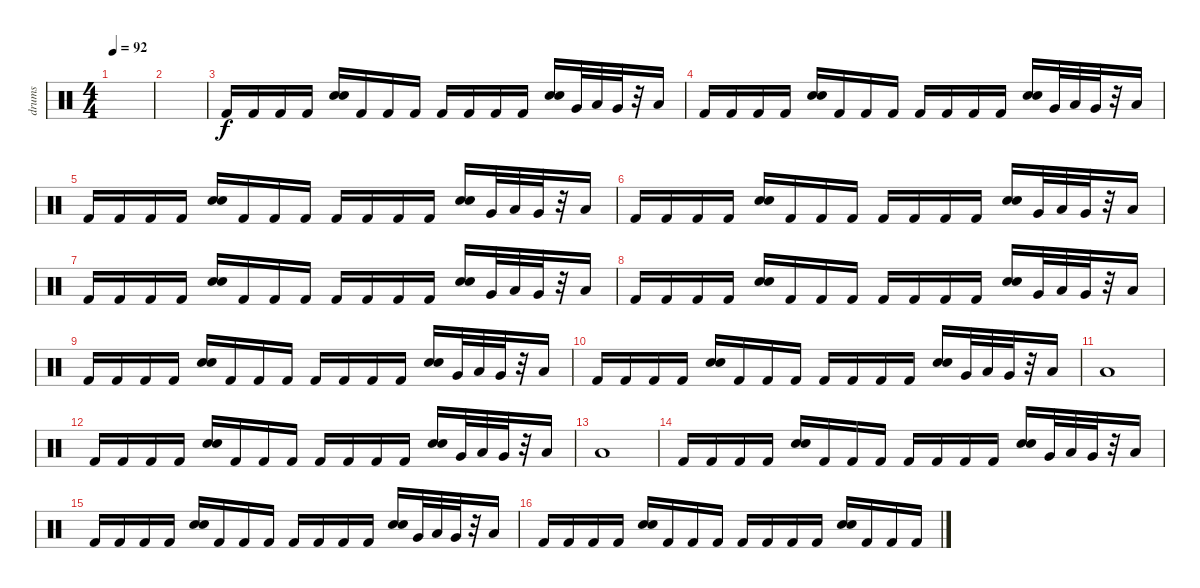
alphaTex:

\track ("drums" "drums") {instrument percussion}
\staff {score}
\articulation defaults
\ts (4 4)
\tempo 92
\clef neutral
\ks c
|
|
"Kick (hit) 2".16 "Kick (hit) 2".16 "Kick (hit) 2".16 "Kick (hit) 2".16 ("Snare (hit) 2" "Snare (hit) 2").16 "Kick (hit) 2".16 "Kick (hit) 2".16 "Kick (hit) 2".16 "Kick (hit) 2".16 "Kick (hit) 2".16 "Kick (hit) 2".16 "Kick (hit) 2".16 ("Snare (hit) 2" "Snare (hit) 2").16 "Very Low Tom (hit)".32 "Low Floor Tom (hit)".32 "Very Low Tom (hit)".32 r.32 "Low Floor Tom (hit)".16 |
"Kick (hit) 2".16 "Kick (hit) 2".16 "Kick (hit) 2".16 "Kick (hit) 2".16 ("Snare (hit) 2" "Snare (hit) 2").16 "Kick (hit) 2".16 "Kick (hit) 2".16 "Kick (hit) 2".16 "Kick (hit) 2".16 "Kick (hit) 2".16 "Kick (hit) 2".16 "Kick (hit) 2".16 ("Snare (hit) 2" "Snare (hit) 2").16 "Very Low Tom (hit)".32 "Low Floor Tom (hit)".32 "Very Low Tom (hit)".32 r.32 "Low Floor Tom (hit)".16 |
"Kick (hit) 2".16 "Kick (hit) 2".16 "Kick (hit) 2".16 "Kick (hit) 2".16 ("Snare (hit) 2" "Snare (hit) 2").16 "Kick (hit) 2".16 "Kick (hit) 2".16 "Kick (hit) 2".16 "Kick (hit) 2".16 "Kick (hit) 2".16 "Kick (hit) 2".16 "Kick (hit) 2".16 ("Snare (hit) 2" "Snare (hit) 2").16 "Very Low Tom (hit)".32 "Low Floor Tom (hit)".32 "Very Low Tom (hit)".32 r.32 "Low Floor Tom (hit)".16 |
"Kick (hit) 2".16 "Kick (hit) 2".16 "Kick (hit) 2".16 "Kick (hit) 2".16 ("Snare (hit) 2" "Snare (hit) 2").16 "Kick (hit) 2".16 "Kick (hit) 2".16 "Kick (hit) 2".16 "Kick (hit) 2".16 "Kick (hit) 2".16 "Kick (hit) 2".16 "Kick (hit) 2".16 ("Snare (hit) 2" "Snare (hit) 2").16 "Very Low Tom (hit)".32 "Low Floor Tom (hit)".32 "Very Low Tom (hit)".32 r.32 "Low Floor Tom (hit)".16 |
"Kick (hit) 2".16 "Kick (hit) 2".16 "Kick (hit) 2".16 "Kick (hit) 2".16 ("Snare (hit) 2" "Snare (hit) 2").16 "Kick (hit) 2".16 "Kick (hit) 2".16 "Kick (hit) 2".16 "Kick (hit) 2".16 "Kick (hit) 2".16 "Kick (hit) 2".16 "Kick (hit) 2".16 ("Snare (hit) 2" "Snare (hit) 2").16 "Very Low Tom (hit)".32 "Low Floor Tom (hit)".32 "Very Low Tom (hit)".32 r.32 "Low Floor Tom (hit)".16 |
"Kick (hit) 2".16 "Kick (hit) 2".16 "Kick (hit) 2".16 "Kick (hit) 2".16 ("Snare (hit) 2" "Snare (hit) 2").16 "Kick (hit) 2".16 "Kick (hit) 2".16 "Kick (hit) 2".16 "Kick (hit) 2".16 "Kick (hit) 2".16 "Kick (hit) 2".16 "Kick (hit) 2".16 ("Snare (hit) 2" "Snare (hit) 2").16 "Very Low Tom (hit)".32 "Low Floor Tom (hit)".32 "Very Low Tom (hit)".32 r.32 "Low Floor Tom (hit)".16 |
"Kick (hit) 2".16 "Kick (hit) 2".16 "Kick (hit) 2".16 "Kick (hit) 2".16 ("Snare (hit) 2" "Snare (hit) 2").16 "Kick (hit) 2".16 "Kick (hit) 2".16 "Kick (hit) 2".16 "Kick (hit) 2".16 "Kick (hit) 2".16 "Kick (hit) 2".16 "Kick (hit) 2".16 ("Snare (hit) 2" "Snare (hit) 2").16 "Very Low Tom (hit)".32 "Low Floor Tom (hit)".32 "Very Low Tom (hit)".32 r.32 "Low Floor Tom (hit)".16 |
"Kick (hit) 2".16 "Kick (hit) 2".16 "Kick (hit) 2".16 "Kick (hit) 2".16 ("Snare (hit) 2" "Snare (hit) 2").16 "Kick (hit) 2".16 "Kick (hit) 2".16 "Kick (hit) 2".16 "Kick (hit) 2".16 "Kick (hit) 2".16 "Kick (hit) 2".16 "Kick (hit) 2".16 ("Snare (hit) 2" "Snare (hit) 2").16 "Very Low Tom (hit)".32 "Low Floor Tom (hit)".32 "Very Low Tom (hit)".32 r.32 "Low Floor Tom (hit)".16 |
"Low Floor Tom (hit)".1 |
"Kick (hit) 2".16 "Kick (hit) 2".16 "Kick (hit) 2".16 "Kick (hit) 2".16 ("Snare (hit) 2" "Snare (hit) 2").16 "Kick (hit) 2".16 "Kick (hit) 2".16 "Kick (hit) 2".16 "Kick (hit) 2".16 "Kick (hit) 2".16 "Kick (hit) 2".16 "Kick (hit) 2".16 ("Snare (hit) 2" "Snare (hit) 2").16 "Very Low Tom (hit)".32 "Low Floor Tom (hit)".32 "Very Low Tom (hit)".32 r.32 "Low Floor Tom (hit)".16 |
"Low Floor Tom (hit)".1 |
"Kick (hit) 2".16 "Kick (hit) 2".16 "Kick (hit) 2".16 "Kick (hit) 2".16 ("Snare (hit) 2" "Snare (hit) 2").16 "Kick (hit) 2".16 "Kick (hit) 2".16 "Kick (hit) 2".16 "Kick (hit) 2".16 "Kick (hit) 2".16 "Kick (hit) 2".16 "Kick (hit) 2".16 ("Snare (hit) 2" "Snare (hit) 2").16 "Very Low Tom (hit)".32 "Low Floor Tom (hit)".32 "Very Low Tom (hit)".32 r.32 "Low Floor Tom (hit)".16 |
"Kick (hit) 2".16 "Kick (hit) 2".16 "Kick (hit) 2".16 "Kick (hit) 2".16 ("Snare (hit) 2" "Snare (hit) 2").16 "Kick (hit) 2".16 "Kick (hit) 2".16 "Kick (hit) 2".16 "Kick (hit) 2".16 "Kick (hit) 2".16 "Kick (hit) 2".16 "Kick (hit) 2".16 ("Snare (hit) 2" "Snare (hit) 2").16 "Very Low Tom (hit)".32 "Low Floor Tom (hit)".32 "Very Low Tom (hit)".32 r.32 "Low Floor Tom (hit)".16 |
"Kick (hit) 2".16 "Kick (hit) 2".16 "Kick (hit) 2".16 "Kick (hit) 2".16 ("Snare (hit) 2" "Snare (hit) 2").16 "Kick (hit) 2".16 "Kick (hit) 2".16 "Kick (hit) 2".16 "Kick (hit) 2".16 "Kick (hit) 2".16 "Kick (hit) 2".16 "Kick (hit) 2".16 ("Snare (hit) 2" "Snare (hit) 2").16 "Kick (hit) 2".16 "Kick (hit) 2".16 "Kick (hit) 2".16
